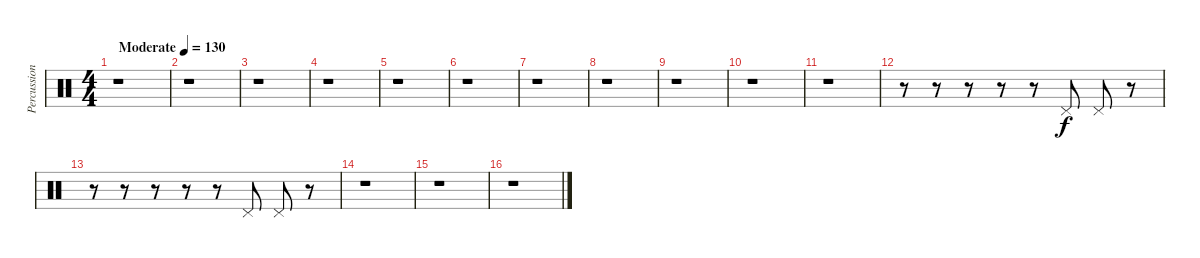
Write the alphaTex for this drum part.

\track ("Percussion" "Percussion") {instrument percussion}
\staff {score}
\articulation defaults
\ts (4 4)
\tempo (130 "Moderate")
\clef neutral
\ks c
r.1{dy f} |
r.1 |
r.1 |
r.1 |
r.1 |
r.1 |
r.1 |
r.1 |
r.1 |
r.1 |
r.1 |
r.8 r.8 r.8 r.8 r.8 "Pedal Hi-Hat (hit)".8 "Pedal Hi-Hat (hit)".8 r.8 |
r.8 r.8 r.8 r.8 r.8 "Pedal Hi-Hat (hit)".8 "Pedal Hi-Hat (hit)".8 r.8 |
r.1 |
r.1 |
r.1
